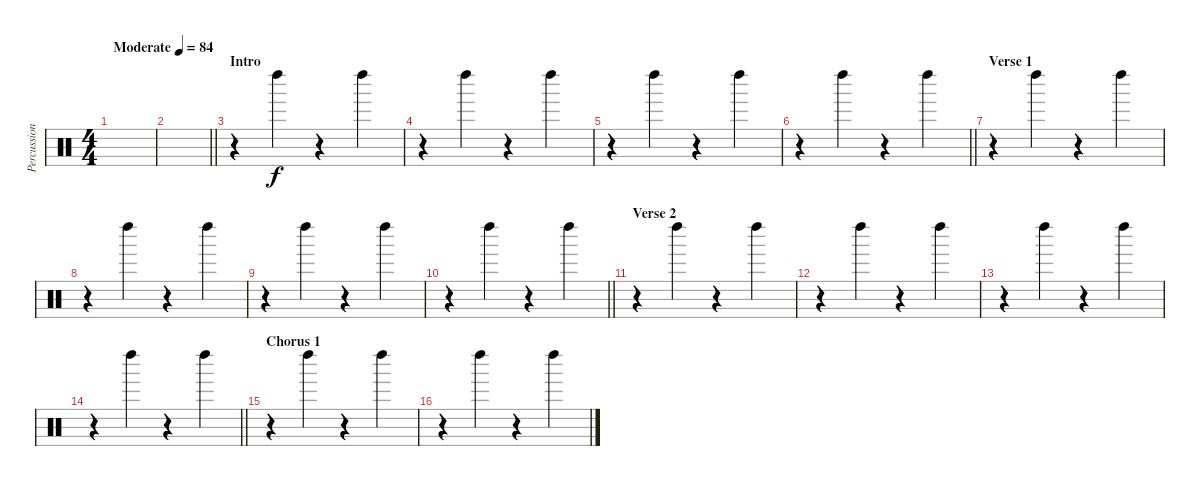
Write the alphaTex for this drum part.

\track ("Percussion" "Percussion") {instrument percussion}
\staff {score}
\articulation defaults
\ts (4 4)
\tempo (84 "Moderate")
\clef neutral
\ks c
|
\barLineRight lightlight
|
\section ("" "Intro")
r.4 "Left Maraca (hit)".4 r.4 "Left Maraca (hit)".4 |
r.4 "Left Maraca (hit)".4 r.4 "Left Maraca (hit)".4 |
r.4 "Left Maraca (hit)".4 r.4 "Left Maraca (hit)".4 |
\barLineRight lightlight
r.4 "Left Maraca (hit)".4 r.4 "Left Maraca (hit)".4 |
\section ("" "Verse 1")
r.4 "Left Maraca (hit)".4 r.4 "Left Maraca (hit)".4 |
r.4 "Left Maraca (hit)".4 r.4 "Left Maraca (hit)".4 |
r.4 "Left Maraca (hit)".4 r.4 "Left Maraca (hit)".4 |
\barLineRight lightlight
r.4 "Left Maraca (hit)".4 r.4 "Left Maraca (hit)".4 |
\section ("" "Verse 2")
r.4 "Left Maraca (hit)".4 r.4 "Left Maraca (hit)".4 |
r.4 "Left Maraca (hit)".4 r.4 "Left Maraca (hit)".4 |
r.4 "Left Maraca (hit)".4 r.4 "Left Maraca (hit)".4 |
\barLineRight lightlight
r.4 "Left Maraca (hit)".4 r.4 "Left Maraca (hit)".4 |
\section ("" "Chorus 1")
r.4 "Left Maraca (hit)".4 r.4 "Left Maraca (hit)".4 |
r.4 "Left Maraca (hit)".4 r.4 "Left Maraca (hit)".4
